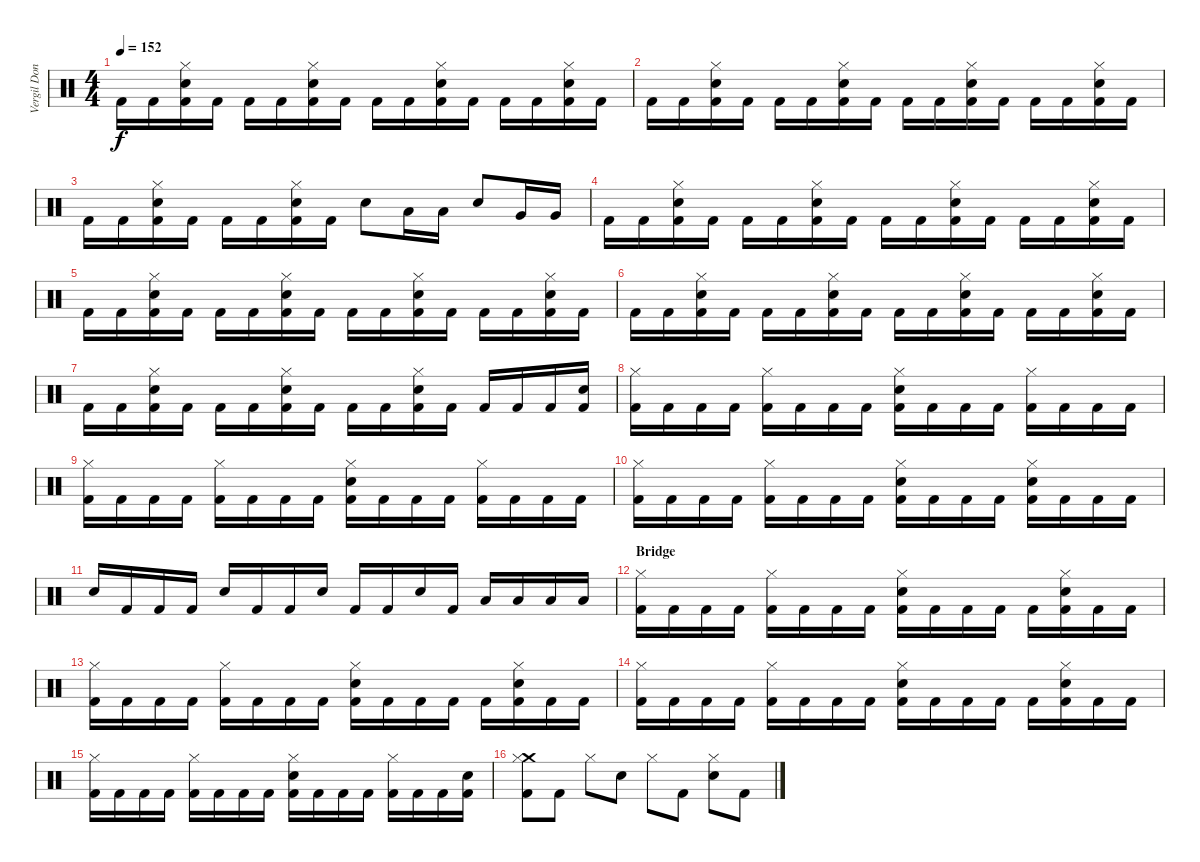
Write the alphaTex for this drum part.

\track ("Vergil Donati" "Vergil Don") {instrument percussion}
\staff {score}
\articulation defaults
\ts (4 4)
\tempo 152
\clef neutral
\ks c "Kick (hit) 2".16{dy f} "Kick (hit) 2".16
("Electric Snare (hit)" "Hi-Hat (closed)" "Kick (hit) 2").16 "Kick (hit) 2".16 "Kick (hit) 2".16 "Kick (hit) 2".16 ("Electric Snare (hit)" "Hi-Hat (closed)" "Kick (hit) 2").16 "Kick (hit) 2".16 "Kick (hit) 2".16 "Kick (hit) 2".16 ("Electric Snare (hit)" "Hi-Hat (closed)" "Kick (hit) 2").16 "Kick (hit) 2".16 "Kick (hit) 2".16 "Kick (hit) 2".16 ("Electric Snare (hit)" "Hi-Hat (closed)" "Kick (hit) 2").16 "Kick (hit) 2".16 |
"Kick (hit) 2".16 "Kick (hit) 2".16 ("Electric Snare (hit)" "Hi-Hat (closed)" "Kick (hit) 2").16 "Kick (hit) 2".16 "Kick (hit) 2".16 "Kick (hit) 2".16 ("Electric Snare (hit)" "Hi-Hat (closed)" "Kick (hit) 2").16 "Kick (hit) 2".16 "Kick (hit) 2".16 "Kick (hit) 2".16 ("Electric Snare (hit)" "Hi-Hat (closed)" "Kick (hit) 2").16 "Kick (hit) 2".16 "Kick (hit) 2".16 "Kick (hit) 2".16 ("Electric Snare (hit)" "Hi-Hat (closed)" "Kick (hit) 2").16 "Kick (hit) 2".16 |
"Kick (hit) 2".16 "Kick (hit) 2".16 ("Electric Snare (hit)" "Hi-Hat (closed)" "Kick (hit) 2").16 "Kick (hit) 2".16 "Kick (hit) 2".16 "Kick (hit) 2".16 ("Electric Snare (hit)" "Hi-Hat (closed)" "Kick (hit) 2").16 "Kick (hit) 2".16 "Snare (hit) 2".8 "Low Tom (hit)".16 "Low Tom (hit)".16 "Snare (hit) 2".8 "Very Low Tom (hit)".16 "Very Low Tom (hit)".16 |
"Kick (hit) 2".16 "Kick (hit) 2".16 ("Electric Snare (hit)" "Hi-Hat (closed)" "Kick (hit) 2").16 "Kick (hit) 2".16 "Kick (hit) 2".16 "Kick (hit) 2".16 ("Electric Snare (hit)" "Hi-Hat (closed)" "Kick (hit) 2").16 "Kick (hit) 2".16 "Kick (hit) 2".16 "Kick (hit) 2".16 ("Electric Snare (hit)" "Hi-Hat (closed)" "Kick (hit) 2").16 "Kick (hit) 2".16 "Kick (hit) 2".16 "Kick (hit) 2".16 ("Electric Snare (hit)" "Hi-Hat (closed)" "Kick (hit) 2").16 "Kick (hit) 2".16 |
"Kick (hit) 2".16 "Kick (hit) 2".16 ("Electric Snare (hit)" "Hi-Hat (closed)" "Kick (hit) 2").16 "Kick (hit) 2".16 "Kick (hit) 2".16 "Kick (hit) 2".16 ("Electric Snare (hit)" "Hi-Hat (closed)" "Kick (hit) 2").16 "Kick (hit) 2".16 "Kick (hit) 2".16 "Kick (hit) 2".16 ("Electric Snare (hit)" "Hi-Hat (closed)" "Kick (hit) 2").16 "Kick (hit) 2".16 "Kick (hit) 2".16 "Kick (hit) 2".16 ("Electric Snare (hit)" "Hi-Hat (closed)" "Kick (hit) 2").16 "Kick (hit) 2".16 |
"Kick (hit) 2".16 "Kick (hit) 2".16 ("Electric Snare (hit)" "Hi-Hat (closed)" "Kick (hit) 2").16 "Kick (hit) 2".16 "Kick (hit) 2".16 "Kick (hit) 2".16 ("Electric Snare (hit)" "Hi-Hat (closed)" "Kick (hit) 2").16 "Kick (hit) 2".16 "Kick (hit) 2".16 "Kick (hit) 2".16 ("Electric Snare (hit)" "Hi-Hat (closed)" "Kick (hit) 2").16 "Kick (hit) 2".16 "Kick (hit) 2".16 "Kick (hit) 2".16 ("Electric Snare (hit)" "Hi-Hat (closed)" "Kick (hit) 2").16 "Kick (hit) 2".16 |
"Kick (hit) 2".16 "Kick (hit) 2".16 ("Electric Snare (hit)" "Hi-Hat (closed)" "Kick (hit) 2").16 "Kick (hit) 2".16 "Kick (hit) 2".16 "Kick (hit) 2".16 ("Electric Snare (hit)" "Hi-Hat (closed)" "Kick (hit) 2").16 "Kick (hit) 2".16 "Kick (hit) 2".16 "Kick (hit) 2".16 ("Electric Snare (hit)" "Hi-Hat (closed)" "Kick (hit) 2").16 "Kick (hit) 2".16 "Kick (hit) 2".16 "Kick (hit) 2".16 "Kick (hit) 2".16 ("Electric Snare (hit)" "Kick (hit) 2").16 |
("Hi-Hat (closed)" "Kick (hit) 2").16 "Kick (hit) 2".16 "Kick (hit) 2".16 "Kick (hit) 2".16 ("Hi-Hat (closed)" "Kick (hit) 2").16 "Kick (hit) 2".16 "Kick (hit) 2".16 "Kick (hit) 2".16 ("Electric Snare (hit)" "Hi-Hat (closed)" "Kick (hit) 2").16 "Kick (hit) 2".16 "Kick (hit) 2".16 "Kick (hit) 2".16 ("Hi-Hat (closed)" "Kick (hit) 2").16 "Kick (hit) 2".16 "Kick (hit) 2".16 "Kick (hit) 2".16 |
("Hi-Hat (closed)" "Kick (hit) 2").16 "Kick (hit) 2".16 "Kick (hit) 2".16 "Kick (hit) 2".16 ("Hi-Hat (closed)" "Kick (hit) 2").16 "Kick (hit) 2".16 "Kick (hit) 2".16 "Kick (hit) 2".16 ("Electric Snare (hit)" "Hi-Hat (closed)" "Kick (hit) 2").16 "Kick (hit) 2".16 "Kick (hit) 2".16 "Kick (hit) 2".16 ("Hi-Hat (closed)" "Kick (hit) 2").16 "Kick (hit) 2".16 "Kick (hit) 2".16 "Kick (hit) 2".16 |
("Hi-Hat (closed)" "Kick (hit) 2").16 "Kick (hit) 2".16 "Kick (hit) 2".16 "Kick (hit) 2".16 ("Hi-Hat (closed)" "Kick (hit) 2").16 "Kick (hit) 2".16 "Kick (hit) 2".16 "Kick (hit) 2".16 ("Electric Snare (hit)" "Hi-Hat (closed)" "Kick (hit) 2").16 "Kick (hit) 2".16 "Kick (hit) 2".16 "Kick (hit) 2".16 ("Electric Snare (hit)" "Hi-Hat (closed)" "Kick (hit) 2").16 "Kick (hit) 2".16 "Kick (hit) 2".16 "Kick (hit) 2".16 |
"Snare (hit) 2".16 "Kick (hit) 2".16 "Kick (hit) 2".16 "Kick (hit) 2".16 "Electric Snare (hit)".16 "Kick (hit) 2".16 "Kick (hit) 2".16 "Electric Snare (hit)".16 "Kick (hit) 2".16 "Kick (hit) 2".16 "Electric Snare (hit)".16 "Kick (hit) 2".16 "Low Tom (hit)".16 "Low Tom (hit)".16 "Low Floor Tom (hit)".16 "Low Floor Tom (hit)".16 |
\section ("" "Bridge")
("Hi-Hat (closed)" "Kick (hit) 2").16 "Kick (hit) 2".16 "Kick (hit) 2".16 "Kick (hit) 2".16 ("Hi-Hat (closed)" "Kick (hit) 2").16 "Kick (hit) 2".16 "Kick (hit) 2".16 "Kick (hit) 2".16 ("Electric Snare (hit)" "Hi-Hat (closed)" "Kick (hit) 2").16 "Kick (hit) 2".16 "Kick (hit) 2".16 "Kick (hit) 2".16 "Kick (hit) 2".16 ("Electric Snare (hit)" "Hi-Hat (closed)" "Kick (hit) 2").16 "Kick (hit) 2".16 "Kick (hit) 2".16 |
("Hi-Hat (closed)" "Kick (hit) 2").16 "Kick (hit) 2".16 "Kick (hit) 2".16 "Kick (hit) 2".16 ("Hi-Hat (closed)" "Kick (hit) 2").16 "Kick (hit) 2".16 "Kick (hit) 2".16 "Kick (hit) 2".16 ("Electric Snare (hit)" "Hi-Hat (closed)" "Kick (hit) 2").16 "Kick (hit) 2".16 "Kick (hit) 2".16 "Kick (hit) 2".16 "Kick (hit) 2".16 ("Electric Snare (hit)" "Hi-Hat (closed)" "Kick (hit) 2").16 "Kick (hit) 2".16 "Kick (hit) 2".16 |
("Hi-Hat (closed)" "Kick (hit) 2").16 "Kick (hit) 2".16 "Kick (hit) 2".16 "Kick (hit) 2".16 ("Hi-Hat (closed)" "Kick (hit) 2").16 "Kick (hit) 2".16 "Kick (hit) 2".16 "Kick (hit) 2".16 ("Electric Snare (hit)" "Hi-Hat (closed)" "Kick (hit) 2").16 "Kick (hit) 2".16 "Kick (hit) 2".16 "Kick (hit) 2".16 "Kick (hit) 2".16 ("Electric Snare (hit)" "Hi-Hat (closed)" "Kick (hit) 2").16 "Kick (hit) 2".16 "Kick (hit) 2".16 |
("Hi-Hat (closed)" "Kick (hit) 2").16 "Kick (hit) 2".16 "Kick (hit) 2".16 "Kick (hit) 2".16 ("Hi-Hat (closed)" "Kick (hit) 2").16 "Kick (hit) 2".16 "Kick (hit) 2".16 "Kick (hit) 2".16 ("Electric Snare (hit)" "Hi-Hat (closed)" "Kick (hit) 2").16 "Kick (hit) 2".16 "Kick (hit) 2".16 "Kick (hit) 2".16 ("Hi-Hat (closed)" "Kick (hit) 2").16 "Kick (hit) 2".16 "Kick (hit) 2".16 ("Electric Snare (hit)" "Kick (hit) 2").16 |
("Crash medium (hit)" "Hi-Hat (closed)" "Kick (hit) 2").8 "Kick (hit) 2".8 "Hi-Hat (closed)".8 "Electric Snare (hit)".8 "Hi-Hat (closed)".8 "Kick (hit) 2".8 ("Electric Snare (hit)" "Hi-Hat (closed)").8 "Kick (hit) 2".8
